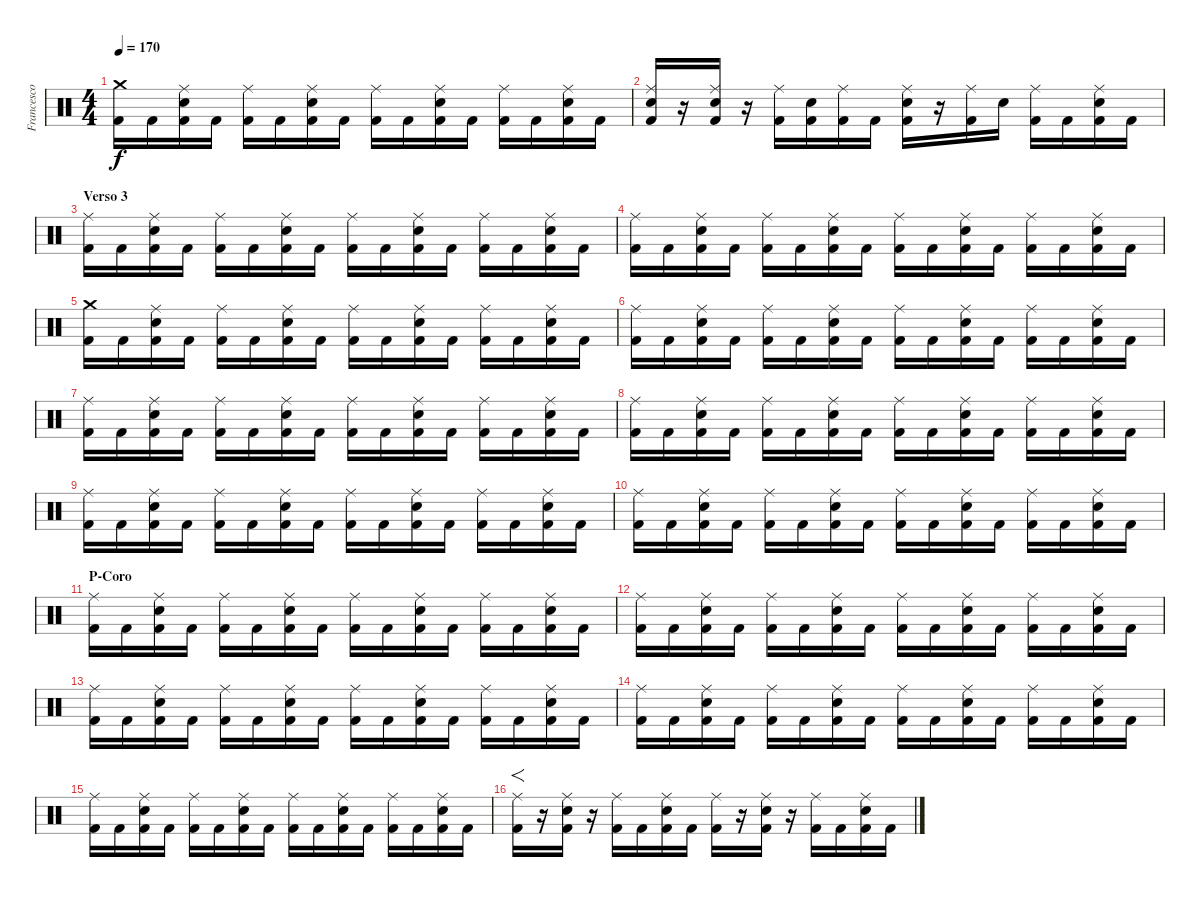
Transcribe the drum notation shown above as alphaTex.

\track ("Francesco Tresa" "Francesco ") {instrument percussion}
\staff {score}
\articulation defaults
\ts (4 4)
\tempo 170
\clef neutral
\ks c
("Crash medium (hit)" "Kick (hit) 2").16{dy f} "Kick (hit) 2".16 ("Ride (middle)" "Kick (hit) 2" "Electric Snare (hit)").16 "Kick (hit) 2".16 ("Ride (middle)" "Kick (hit) 2").16 "Kick (hit) 2".16 ("Ride (middle)" "Kick (hit) 2" "Electric Snare (hit)").16 "Kick (hit) 2".16 ("Ride (middle)" "Kick (hit) 2").16 "Kick (hit) 2".16 ("Ride (middle)" "Kick (hit) 2" "Electric Snare (hit)").16 "Kick (hit) 2".16 ("Ride (middle)" "Kick (hit) 2").16 "Kick (hit) 2".16 ("Ride (middle)" "Kick (hit) 2" "Electric Snare (hit)").16 "Kick (hit) 2".16 |
("Ride (middle)" "Kick (hit) 2" "Electric Snare (hit)").16 r.16 ("Ride (middle)" "Kick (hit) 2" "Electric Snare (hit)").16 r.16 ("Ride (middle)" "Kick (hit) 2").16 ("Kick (hit) 2" "Electric Snare (hit)").16 ("Ride (middle)" "Kick (hit) 2").16 "Kick (hit) 2".16 ("Ride (middle)" "Kick (hit) 2" "Electric Snare (hit)").16 r.16 ("Ride (middle)" "Kick (hit) 2").16 "Electric Snare (hit)".16 ("Ride (middle)" "Kick (hit) 2").16 "Kick (hit) 2".16 ("Ride (middle)" "Kick (hit) 2" "Electric Snare (hit)").16 "Kick (hit) 2".16 |
\section ("" "Verso 3")
("Ride (middle)" "Kick (hit) 2").16 "Kick (hit) 2".16 ("Ride (middle)" "Kick (hit) 2" "Electric Snare (hit)").16 "Kick (hit) 2".16 ("Ride (middle)" "Kick (hit) 2").16 "Kick (hit) 2".16 ("Ride (middle)" "Kick (hit) 2" "Electric Snare (hit)").16 "Kick (hit) 2".16 ("Ride (middle)" "Kick (hit) 2").16 "Kick (hit) 2".16 ("Ride (middle)" "Kick (hit) 2" "Electric Snare (hit)").16 "Kick (hit) 2".16 ("Ride (middle)" "Kick (hit) 2").16 "Kick (hit) 2".16 ("Ride (middle)" "Kick (hit) 2" "Electric Snare (hit)").16 "Kick (hit) 2".16 |
("Ride (middle)" "Kick (hit) 2").16 "Kick (hit) 2".16 ("Ride (middle)" "Kick (hit) 2" "Electric Snare (hit)").16 "Kick (hit) 2".16 ("Ride (middle)" "Kick (hit) 2").16 "Kick (hit) 2".16 ("Ride (middle)" "Kick (hit) 2" "Electric Snare (hit)").16 "Kick (hit) 2".16 ("Ride (middle)" "Kick (hit) 2").16 "Kick (hit) 2".16 ("Ride (middle)" "Kick (hit) 2" "Electric Snare (hit)").16 "Kick (hit) 2".16 ("Ride (middle)" "Kick (hit) 2").16 "Kick (hit) 2".16 ("Ride (middle)" "Kick (hit) 2" "Electric Snare (hit)").16 "Kick (hit) 2".16 |
("Crash medium (hit)" "Kick (hit) 2").16 "Kick (hit) 2".16 ("Ride (middle)" "Kick (hit) 2" "Electric Snare (hit)").16 "Kick (hit) 2".16 ("Ride (middle)" "Kick (hit) 2").16 "Kick (hit) 2".16 ("Ride (middle)" "Kick (hit) 2" "Electric Snare (hit)").16 "Kick (hit) 2".16 ("Ride (middle)" "Kick (hit) 2").16 "Kick (hit) 2".16 ("Ride (middle)" "Kick (hit) 2" "Electric Snare (hit)").16 "Kick (hit) 2".16 ("Ride (middle)" "Kick (hit) 2").16 "Kick (hit) 2".16 ("Ride (middle)" "Kick (hit) 2" "Electric Snare (hit)").16 "Kick (hit) 2".16 |
("Ride (middle)" "Kick (hit) 2").16 "Kick (hit) 2".16 ("Ride (middle)" "Kick (hit) 2" "Electric Snare (hit)").16 "Kick (hit) 2".16 ("Ride (middle)" "Kick (hit) 2").16 "Kick (hit) 2".16 ("Ride (middle)" "Kick (hit) 2" "Electric Snare (hit)").16 "Kick (hit) 2".16 ("Ride (middle)" "Kick (hit) 2").16 "Kick (hit) 2".16 ("Ride (middle)" "Kick (hit) 2" "Electric Snare (hit)").16 "Kick (hit) 2".16 ("Ride (middle)" "Kick (hit) 2").16 "Kick (hit) 2".16 ("Ride (middle)" "Kick (hit) 2" "Electric Snare (hit)").16 "Kick (hit) 2".16 |
("Ride (middle)" "Kick (hit) 2").16 "Kick (hit) 2".16 ("Ride (middle)" "Kick (hit) 2" "Electric Snare (hit)").16 "Kick (hit) 2".16 ("Ride (middle)" "Kick (hit) 2").16 "Kick (hit) 2".16 ("Ride (middle)" "Kick (hit) 2" "Electric Snare (hit)").16 "Kick (hit) 2".16 ("Ride (middle)" "Kick (hit) 2").16 "Kick (hit) 2".16 ("Ride (middle)" "Kick (hit) 2" "Electric Snare (hit)").16 "Kick (hit) 2".16 ("Ride (middle)" "Kick (hit) 2").16 "Kick (hit) 2".16 ("Ride (middle)" "Kick (hit) 2" "Electric Snare (hit)").16 "Kick (hit) 2".16 |
("Ride (middle)" "Kick (hit) 2").16 "Kick (hit) 2".16 ("Ride (middle)" "Kick (hit) 2" "Electric Snare (hit)").16 "Kick (hit) 2".16 ("Ride (middle)" "Kick (hit) 2").16 "Kick (hit) 2".16 ("Ride (middle)" "Kick (hit) 2" "Electric Snare (hit)").16 "Kick (hit) 2".16 ("Ride (middle)" "Kick (hit) 2").16 "Kick (hit) 2".16 ("Ride (middle)" "Kick (hit) 2" "Electric Snare (hit)").16 "Kick (hit) 2".16 ("Ride (middle)" "Kick (hit) 2").16 "Kick (hit) 2".16 ("Ride (middle)" "Kick (hit) 2" "Electric Snare (hit)").16 "Kick (hit) 2".16 |
("Ride (middle)" "Kick (hit) 2").16 "Kick (hit) 2".16 ("Ride (middle)" "Kick (hit) 2" "Electric Snare (hit)").16 "Kick (hit) 2".16 ("Ride (middle)" "Kick (hit) 2").16 "Kick (hit) 2".16 ("Ride (middle)" "Kick (hit) 2" "Electric Snare (hit)").16 "Kick (hit) 2".16 ("Ride (middle)" "Kick (hit) 2").16 "Kick (hit) 2".16 ("Ride (middle)" "Kick (hit) 2" "Electric Snare (hit)").16 "Kick (hit) 2".16 ("Ride (middle)" "Kick (hit) 2").16 "Kick (hit) 2".16 ("Ride (middle)" "Kick (hit) 2" "Electric Snare (hit)").16 "Kick (hit) 2".16 |
("Ride (middle)" "Kick (hit) 2").16 "Kick (hit) 2".16 ("Ride (middle)" "Kick (hit) 2" "Electric Snare (hit)").16 "Kick (hit) 2".16 ("Ride (middle)" "Kick (hit) 2").16 "Kick (hit) 2".16 ("Ride (middle)" "Kick (hit) 2" "Electric Snare (hit)").16 "Kick (hit) 2".16 ("Ride (middle)" "Kick (hit) 2").16 "Kick (hit) 2".16 ("Ride (middle)" "Kick (hit) 2" "Electric Snare (hit)").16 "Kick (hit) 2".16 ("Ride (middle)" "Kick (hit) 2").16 "Kick (hit) 2".16 ("Ride (middle)" "Kick (hit) 2" "Electric Snare (hit)").16 "Kick (hit) 2".16 |
\section ("" "P-Coro")
("Ride (middle)" "Kick (hit) 2").16 "Kick (hit) 2".16 ("Ride (middle)" "Kick (hit) 2" "Electric Snare (hit)").16 "Kick (hit) 2".16 ("Ride (middle)" "Kick (hit) 2").16 "Kick (hit) 2".16 ("Ride (middle)" "Kick (hit) 2" "Electric Snare (hit)").16 "Kick (hit) 2".16 ("Ride (middle)" "Kick (hit) 2").16 "Kick (hit) 2".16 ("Ride (middle)" "Kick (hit) 2" "Electric Snare (hit)").16 "Kick (hit) 2".16 ("Ride (middle)" "Kick (hit) 2").16 "Kick (hit) 2".16 ("Ride (middle)" "Kick (hit) 2" "Electric Snare (hit)").16 "Kick (hit) 2".16 |
("Ride (middle)" "Kick (hit) 2").16 "Kick (hit) 2".16 ("Ride (middle)" "Kick (hit) 2" "Electric Snare (hit)").16 "Kick (hit) 2".16 ("Ride (middle)" "Kick (hit) 2").16 "Kick (hit) 2".16 ("Ride (middle)" "Kick (hit) 2" "Electric Snare (hit)").16 "Kick (hit) 2".16 ("Ride (middle)" "Kick (hit) 2").16 "Kick (hit) 2".16 ("Ride (middle)" "Kick (hit) 2" "Electric Snare (hit)").16 "Kick (hit) 2".16 ("Ride (middle)" "Kick (hit) 2").16 "Kick (hit) 2".16 ("Ride (middle)" "Kick (hit) 2" "Electric Snare (hit)").16 "Kick (hit) 2".16 |
("Ride (middle)" "Kick (hit) 2").16 "Kick (hit) 2".16 ("Ride (middle)" "Kick (hit) 2" "Electric Snare (hit)").16 "Kick (hit) 2".16 ("Ride (middle)" "Kick (hit) 2").16 "Kick (hit) 2".16 ("Ride (middle)" "Kick (hit) 2" "Electric Snare (hit)").16 "Kick (hit) 2".16 ("Ride (middle)" "Kick (hit) 2").16 "Kick (hit) 2".16 ("Ride (middle)" "Kick (hit) 2" "Electric Snare (hit)").16 "Kick (hit) 2".16 ("Ride (middle)" "Kick (hit) 2").16 "Kick (hit) 2".16 ("Ride (middle)" "Kick (hit) 2" "Electric Snare (hit)").16 "Kick (hit) 2".16 |
("Ride (middle)" "Kick (hit) 2").16 "Kick (hit) 2".16 ("Ride (middle)" "Kick (hit) 2" "Electric Snare (hit)").16 "Kick (hit) 2".16 ("Ride (middle)" "Kick (hit) 2").16 "Kick (hit) 2".16 ("Ride (middle)" "Kick (hit) 2" "Electric Snare (hit)").16 "Kick (hit) 2".16 ("Ride (middle)" "Kick (hit) 2").16 "Kick (hit) 2".16 ("Ride (middle)" "Kick (hit) 2" "Electric Snare (hit)").16 "Kick (hit) 2".16 ("Ride (middle)" "Kick (hit) 2").16 "Kick (hit) 2".16 ("Ride (middle)" "Kick (hit) 2" "Electric Snare (hit)").16 "Kick (hit) 2".16 |
("Ride (middle)" "Kick (hit) 2").16 "Kick (hit) 2".16 ("Ride (middle)" "Kick (hit) 2" "Electric Snare (hit)").16 "Kick (hit) 2".16 ("Ride (middle)" "Kick (hit) 2").16 "Kick (hit) 2".16 ("Ride (middle)" "Kick (hit) 2" "Electric Snare (hit)").16 "Kick (hit) 2".16 ("Ride (middle)" "Kick (hit) 2").16 "Kick (hit) 2".16 ("Ride (middle)" "Kick (hit) 2" "Electric Snare (hit)").16 "Kick (hit) 2".16 ("Ride (middle)" "Kick (hit) 2").16 "Kick (hit) 2".16 ("Ride (middle)" "Kick (hit) 2" "Electric Snare (hit)").16 "Kick (hit) 2".16 |
("Ride (middle)" "Kick (hit) 2").16{f} r.16 ("Ride (middle)" "Kick (hit) 2" "Electric Snare (hit)").16 r.16 ("Ride (middle)" "Kick (hit) 2").16 "Kick (hit) 2".16 ("Ride (middle)" "Kick (hit) 2" "Electric Snare (hit)").16 "Kick (hit) 2".16 ("Ride (middle)" "Kick (hit) 2").16 r.16 ("Ride (middle)" "Kick (hit) 2" "Electric Snare (hit)").16 r.16 ("Ride (middle)" "Kick (hit) 2").16 "Kick (hit) 2".16 ("Ride (middle)" "Kick (hit) 2" "Electric Snare (hit)").16 "Kick (hit) 2".16
